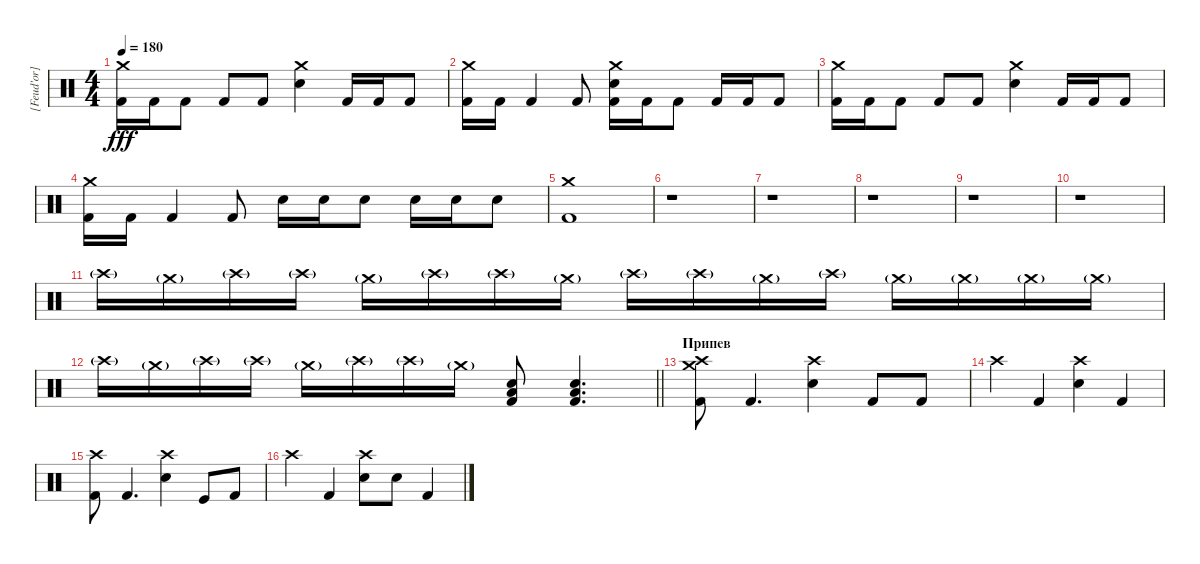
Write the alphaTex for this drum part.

\track ("[Feud'or] - Drums" "[Feud'or] ") {instrument percussion}
\staff {score}
\articulation defaults
\ts (4 4)
\tempo 180
\clef neutral
\ks c
("Crash medium (hit)" "Kick (hit) 2").16{dy fff} "Kick (hit) 2".16 "Kick (hit) 2".8 "Kick (hit) 2".8 "Kick (hit) 2".8 ("Crash medium (hit)" "Electric Snare (hit)").4 "Kick (hit) 2".16 "Kick (hit) 2".16 "Kick (hit) 2".8 |
("Crash medium (hit)" "Kick (hit) 2").16 "Kick (hit) 2".16 "Kick (hit) 2".4 "Kick (hit) 2".8 ("Crash medium (hit)" "Electric Snare (hit)" "Kick (hit) 2").16 "Kick (hit) 2".16 "Kick (hit) 2".8 "Kick (hit) 2".16 "Kick (hit) 2".16 "Kick (hit) 2".8 |
("Crash medium (hit)" "Kick (hit) 2").16 "Kick (hit) 2".16 "Kick (hit) 2".8 "Kick (hit) 2".8 "Kick (hit) 2".8 ("Crash medium (hit)" "Electric Snare (hit)").4 "Kick (hit) 2".16 "Kick (hit) 2".16 "Kick (hit) 2".8 |
("Crash medium (hit)" "Kick (hit) 2").16 "Kick (hit) 2".16 "Kick (hit) 2".4 "Kick (hit) 2".8 "Electric Snare (hit)".16 "Electric Snare (hit)".16 "Electric Snare (hit)".8 "Electric Snare (hit)".16 "Electric Snare (hit)".16 "Electric Snare (hit)".8 |
("Crash medium (hit)" "Kick (hit) 2").1 |
r.1 |
r.1 |
r.1 |
r.1 |
r.1{volume 0} |
"Crash high (hit)"{g}.16{volume 16} "Crash medium (hit)"{g}.16 "Crash high (hit)"{g}.16 "Crash high (hit)"{g}.16 "Crash medium (hit)"{g}.16 "Crash high (hit)"{g}.16 "Crash high (hit)"{g}.16 "Crash medium (hit)"{g}.16 "Crash high (hit)"{g}.16 "Crash high (hit)"{g}.16 "Crash medium (hit)"{g}.16 "Crash high (hit)"{g}.16 "Crash medium (hit)"{g}.16 "Crash medium (hit)"{g}.16 "Crash medium (hit)"{g}.16 "Crash medium (hit)"{g}.16 |
\barLineRight lightlight "Crash high (hit)"{g}.16 "Crash medium (hit)"{g}.16 "Crash high (hit)"{g}.16 "Crash high (hit)"{g}.16 "Crash medium (hit)"{g}.16 "Crash high (hit)"{g}.16 "Crash high (hit)"{g}.16 "Crash medium (hit)"{g}.16
("Low Tom (hit)" "Electric Snare (hit)" "Kick (hit) 2").8 ("Low Tom (hit)" "Electric Snare (hit)" "Kick (hit) 2").4{d} |
\section ("" "Припев")
("Crash high (hit)" "Crash medium (hit)" "Kick (hit) 2").8 "Kick (hit) 2".4{d} ("Crash high (hit)" "Snare (hit) 2").4 "Kick (hit) 2".8 "Kick (hit) 2".8 |
"Crash high (hit)".4 "Kick (hit) 2".4 ("Crash high (hit)" "Snare (hit) 2").4 "Kick (hit) 2".4 |
("Crash high (hit)" "Kick (hit) 2").8 "Kick (hit) 2".4{d} ("Crash high (hit)" "Snare (hit) 2").4 "Kick (hit)".8 "Kick (hit) 2".8 |
"Crash high (hit)".4 "Kick (hit) 2".4 ("Crash high (hit)" "Snare (hit) 2").8 "Snare (hit) 2".8 "Kick (hit) 2".4
